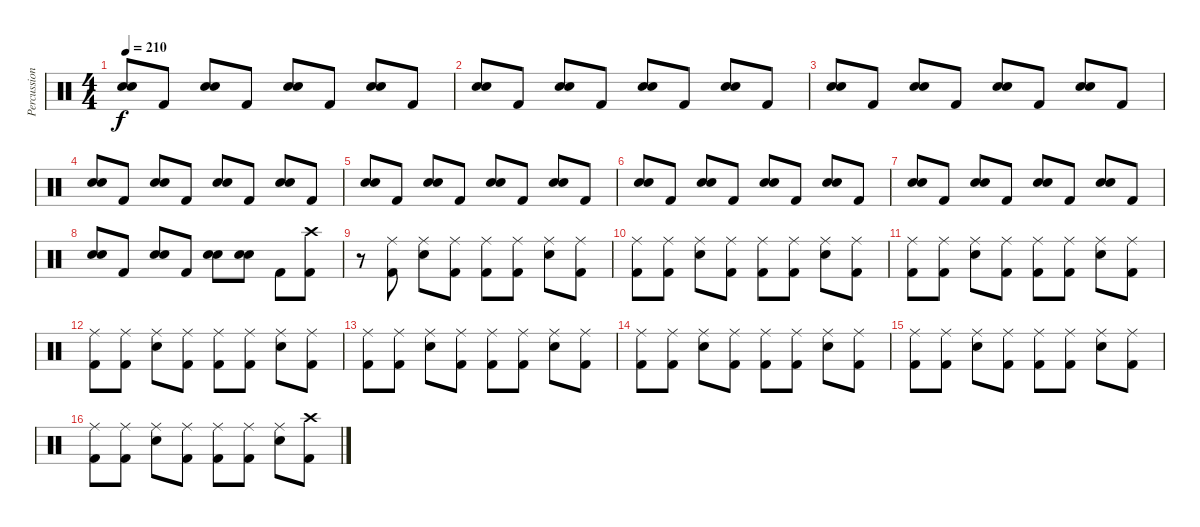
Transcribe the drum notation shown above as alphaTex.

\track ("Percussion" "Percussion") {instrument percussion}
\staff {score}
\articulation defaults
\ts (4 4)
\tempo 210
\clef neutral
\ks c
("Electric Snare (hit)" "Electric Snare (hit)").8{bd 240 dy f} "Kick (hit) 2".8 ("Electric Snare (hit)" "Electric Snare (hit)").8{bd 240} "Kick (hit) 2".8 ("Electric Snare (hit)" "Electric Snare (hit)").8{bd 240} "Kick (hit) 2".8 ("Electric Snare (hit)" "Electric Snare (hit)").8{bd 240} "Kick (hit) 2".8 |
("Electric Snare (hit)" "Electric Snare (hit)").8{bd 240} "Kick (hit) 2".8 ("Electric Snare (hit)" "Electric Snare (hit)").8{bd 240} "Kick (hit) 2".8 ("Electric Snare (hit)" "Electric Snare (hit)").8{bd 240} "Kick (hit) 2".8 ("Electric Snare (hit)" "Electric Snare (hit)").8{bd 240} "Kick (hit) 2".8 |
("Electric Snare (hit)" "Electric Snare (hit)").8{bd 240} "Kick (hit) 2".8 ("Electric Snare (hit)" "Electric Snare (hit)").8{bd 240} "Kick (hit) 2".8 ("Electric Snare (hit)" "Electric Snare (hit)").8{bd 240} "Kick (hit) 2".8 ("Electric Snare (hit)" "Electric Snare (hit)").8{bd 240} "Kick (hit) 2".8 |
("Electric Snare (hit)" "Electric Snare (hit)").8{bd 240} "Kick (hit) 2".8 ("Electric Snare (hit)" "Electric Snare (hit)").8{bd 240} "Kick (hit) 2".8 ("Electric Snare (hit)" "Electric Snare (hit)").8{bd 240} "Kick (hit) 2".8 ("Electric Snare (hit)" "Electric Snare (hit)").8{bd 240} "Kick (hit) 2".8 |
("Electric Snare (hit)" "Electric Snare (hit)").8{bd 240} "Kick (hit) 2".8 ("Electric Snare (hit)" "Electric Snare (hit)").8{bd 240} "Kick (hit) 2".8 ("Electric Snare (hit)" "Electric Snare (hit)").8{bd 240} "Kick (hit) 2".8 ("Electric Snare (hit)" "Electric Snare (hit)").8{bd 240} "Kick (hit) 2".8 |
("Electric Snare (hit)" "Electric Snare (hit)").8{bd 240} "Kick (hit) 2".8 ("Electric Snare (hit)" "Electric Snare (hit)").8{bd 240} "Kick (hit) 2".8 ("Electric Snare (hit)" "Electric Snare (hit)").8{bd 240} "Kick (hit) 2".8 ("Electric Snare (hit)" "Electric Snare (hit)").8{bd 240} "Kick (hit) 2".8 |
("Electric Snare (hit)" "Electric Snare (hit)").8{bd 240} "Kick (hit) 2".8 ("Electric Snare (hit)" "Electric Snare (hit)").8{bd 240} "Kick (hit) 2".8 ("Electric Snare (hit)" "Electric Snare (hit)").8{bd 240} "Kick (hit) 2".8 ("Electric Snare (hit)" "Electric Snare (hit)").8{bd 240} "Kick (hit) 2".8 |
("Electric Snare (hit)" "Electric Snare (hit)").8{bd 240} "Kick (hit) 2".8 ("Electric Snare (hit)" "Electric Snare (hit)").8{bd 240} "Kick (hit) 2".8 ("Electric Snare (hit)" "Electric Snare (hit)").8{bd 240} ("Electric Snare (hit)" "Electric Snare (hit)").8{bd 240} "Kick (hit) 2".8 ("Crash high (hit)" "Kick (hit) 2").8 |
r.8 ("Ride (middle)" "Kick (hit) 2").8 ("Ride (middle)" "Electric Snare (hit)").8 ("Ride (middle)" "Kick (hit) 2").8 ("Ride (middle)" "Kick (hit) 2").8 ("Ride (middle)" "Kick (hit) 2").8 ("Ride (middle)" "Electric Snare (hit)").8 ("Ride (middle)" "Kick (hit) 2").8 |
("Ride (middle)" "Kick (hit) 2").8 ("Ride (middle)" "Kick (hit) 2").8 ("Ride (middle)" "Electric Snare (hit)").8 ("Ride (middle)" "Kick (hit) 2").8 ("Ride (middle)" "Kick (hit) 2").8 ("Ride (middle)" "Kick (hit) 2").8 ("Ride (middle)" "Electric Snare (hit)").8 ("Ride (middle)" "Kick (hit) 2").8 |
("Ride (middle)" "Kick (hit) 2").8 ("Ride (middle)" "Kick (hit) 2").8 ("Ride (middle)" "Electric Snare (hit)").8 ("Ride (middle)" "Kick (hit) 2").8 ("Ride (middle)" "Kick (hit) 2").8 ("Ride (middle)" "Kick (hit) 2").8 ("Ride (middle)" "Electric Snare (hit)").8 ("Ride (middle)" "Kick (hit) 2").8 |
("Ride (middle)" "Kick (hit) 2").8 ("Ride (middle)" "Kick (hit) 2").8 ("Ride (middle)" "Electric Snare (hit)").8 ("Ride (middle)" "Kick (hit) 2").8 ("Ride (middle)" "Kick (hit) 2").8 ("Ride (middle)" "Kick (hit) 2").8 ("Ride (middle)" "Electric Snare (hit)").8 ("Ride (middle)" "Kick (hit) 2").8 |
("Ride (middle)" "Kick (hit) 2").8 ("Ride (middle)" "Kick (hit) 2").8 ("Ride (middle)" "Electric Snare (hit)").8 ("Ride (middle)" "Kick (hit) 2").8 ("Ride (middle)" "Kick (hit) 2").8 ("Ride (middle)" "Kick (hit) 2").8 ("Ride (middle)" "Electric Snare (hit)").8 ("Ride (middle)" "Kick (hit) 2").8 |
("Ride (middle)" "Kick (hit) 2").8 ("Ride (middle)" "Kick (hit) 2").8 ("Ride (middle)" "Electric Snare (hit)").8 ("Ride (middle)" "Kick (hit) 2").8 ("Ride (middle)" "Kick (hit) 2").8 ("Ride (middle)" "Kick (hit) 2").8 ("Ride (middle)" "Electric Snare (hit)").8 ("Ride (middle)" "Kick (hit) 2").8 |
("Ride (middle)" "Kick (hit) 2").8 ("Ride (middle)" "Kick (hit) 2").8 ("Ride (middle)" "Electric Snare (hit)").8 ("Ride (middle)" "Kick (hit) 2").8 ("Ride (middle)" "Kick (hit) 2").8 ("Ride (middle)" "Kick (hit) 2").8 ("Ride (middle)" "Electric Snare (hit)").8 ("Ride (middle)" "Kick (hit) 2").8 |
("Ride (middle)" "Kick (hit) 2").8 ("Ride (middle)" "Kick (hit) 2").8 ("Ride (middle)" "Electric Snare (hit)").8 ("Ride (middle)" "Kick (hit) 2").8 ("Ride (middle)" "Kick (hit) 2").8 ("Ride (middle)" "Kick (hit) 2").8 ("Ride (middle)" "Electric Snare (hit)").8 ("Crash high (hit)" "Kick (hit) 2").8
